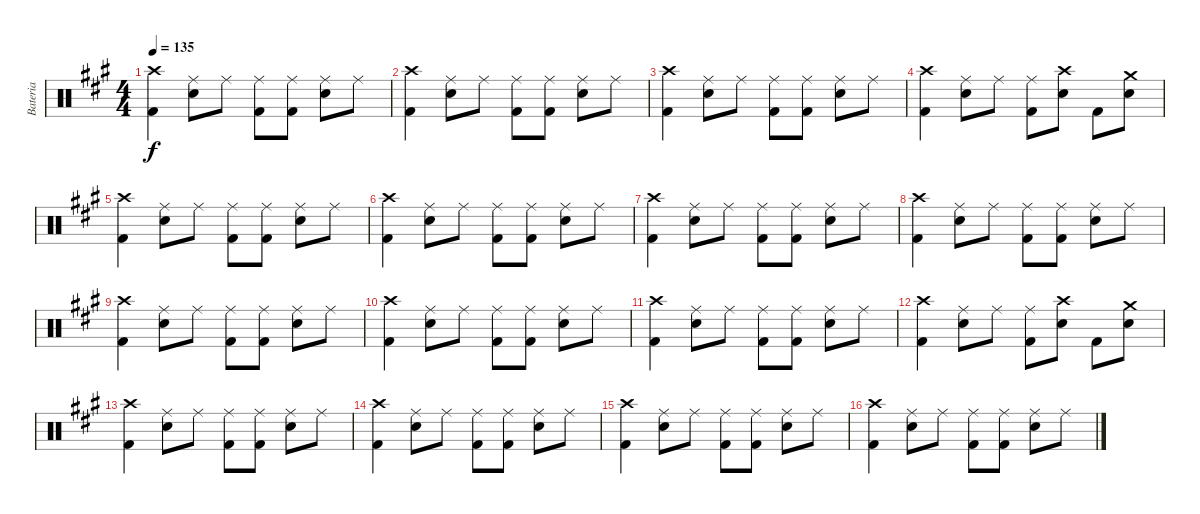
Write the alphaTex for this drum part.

\track ("Bateria" "Bateria") {instrument percussion}
\staff {score}
\articulation defaults
\ts (4 4)
\tempo 135
\clef neutral
\ks a
("Kick (hit) 2" "Crash high (hit)").4{dy f} ("Electric Snare (hit)" "Ride (middle)").8 "Ride (middle)".8 ("Ride (middle)" "Kick (hit) 2").8 ("Ride (middle)" "Kick (hit) 2").8 ("Ride (middle)" "Electric Snare (hit)").8 "Ride (middle)".8 |
("Kick (hit) 2" "Crash high (hit)").4 ("Electric Snare (hit)" "Ride (middle)").8 "Ride (middle)".8 ("Ride (middle)" "Kick (hit) 2").8 ("Ride (middle)" "Kick (hit) 2").8 ("Ride (middle)" "Electric Snare (hit)").8 "Ride (middle)".8 |
("Kick (hit) 2" "Crash high (hit)").4 ("Electric Snare (hit)" "Ride (middle)").8 "Ride (middle)".8 ("Ride (middle)" "Kick (hit) 2").8 ("Ride (middle)" "Kick (hit) 2").8 ("Ride (middle)" "Electric Snare (hit)").8 "Ride (middle)".8 |
("Kick (hit) 2" "Crash high (hit)").4 ("Electric Snare (hit)" "Ride (middle)").8 "Ride (middle)".8 ("Ride (middle)" "Kick (hit) 2").8 ("Electric Snare (hit)" "Crash high (hit)").8 "Kick (hit) 2".8 ("Electric Snare (hit)" "Crash medium (hit)").8 |
("Kick (hit) 2" "Crash high (hit)").4 ("Electric Snare (hit)" "Ride (middle)").8 "Ride (middle)".8 ("Ride (middle)" "Kick (hit) 2").8 ("Ride (middle)" "Kick (hit) 2").8 ("Ride (middle)" "Electric Snare (hit)").8 "Ride (middle)".8 |
("Kick (hit) 2" "Crash high (hit)").4 ("Electric Snare (hit)" "Ride (middle)").8 "Ride (middle)".8 ("Ride (middle)" "Kick (hit) 2").8 ("Ride (middle)" "Kick (hit) 2").8 ("Ride (middle)" "Electric Snare (hit)").8 "Ride (middle)".8 |
("Kick (hit) 2" "Crash high (hit)").4 ("Electric Snare (hit)" "Ride (middle)").8 "Ride (middle)".8 ("Ride (middle)" "Kick (hit) 2").8 ("Ride (middle)" "Kick (hit) 2").8 ("Ride (middle)" "Electric Snare (hit)").8 "Ride (middle)".8 |
("Kick (hit) 2" "Crash high (hit)").4 ("Electric Snare (hit)" "Ride (middle)").8 "Ride (middle)".8 ("Ride (middle)" "Kick (hit) 2").8 ("Ride (middle)" "Kick (hit) 2").8 ("Ride (middle)" "Electric Snare (hit)").8 "Ride (middle)".8 |
("Kick (hit) 2" "Crash high (hit)").4 ("Electric Snare (hit)" "Ride (middle)").8 "Ride (middle)".8 ("Ride (middle)" "Kick (hit) 2").8 ("Ride (middle)" "Kick (hit) 2").8 ("Ride (middle)" "Electric Snare (hit)").8 "Ride (middle)".8 |
("Kick (hit) 2" "Crash high (hit)").4 ("Electric Snare (hit)" "Ride (middle)").8 "Ride (middle)".8 ("Ride (middle)" "Kick (hit) 2").8 ("Ride (middle)" "Kick (hit) 2").8 ("Ride (middle)" "Electric Snare (hit)").8 "Ride (middle)".8 |
("Kick (hit) 2" "Crash high (hit)").4 ("Electric Snare (hit)" "Ride (middle)").8 "Ride (middle)".8 ("Ride (middle)" "Kick (hit) 2").8 ("Ride (middle)" "Kick (hit) 2").8 ("Ride (middle)" "Electric Snare (hit)").8 "Ride (middle)".8 |
("Kick (hit) 2" "Crash high (hit)").4 ("Electric Snare (hit)" "Ride (middle)").8 "Ride (middle)".8 ("Ride (middle)" "Kick (hit) 2").8 ("Electric Snare (hit)" "Crash high (hit)").8 "Kick (hit) 2".8 ("Electric Snare (hit)" "Crash medium (hit)").8 |
("Kick (hit) 2" "Crash high (hit)").4 ("Electric Snare (hit)" "Ride (middle)").8 "Ride (middle)".8 ("Ride (middle)" "Kick (hit) 2").8 ("Ride (middle)" "Kick (hit) 2").8 ("Ride (middle)" "Electric Snare (hit)").8 "Ride (middle)".8 |
("Kick (hit) 2" "Crash high (hit)").4 ("Electric Snare (hit)" "Ride (middle)").8 "Ride (middle)".8 ("Ride (middle)" "Kick (hit) 2").8 ("Ride (middle)" "Kick (hit) 2").8 ("Ride (middle)" "Electric Snare (hit)").8 "Ride (middle)".8 |
("Kick (hit) 2" "Crash high (hit)").4 ("Electric Snare (hit)" "Ride (middle)").8 "Ride (middle)".8 ("Ride (middle)" "Kick (hit) 2").8 ("Ride (middle)" "Kick (hit) 2").8 ("Ride (middle)" "Electric Snare (hit)").8 "Ride (middle)".8 |
("Kick (hit) 2" "Crash high (hit)").4 ("Electric Snare (hit)" "Ride (middle)").8 "Ride (middle)".8 ("Ride (middle)" "Kick (hit) 2").8 ("Ride (middle)" "Kick (hit) 2").8 ("Ride (middle)" "Electric Snare (hit)").8 "Ride (middle)".8
